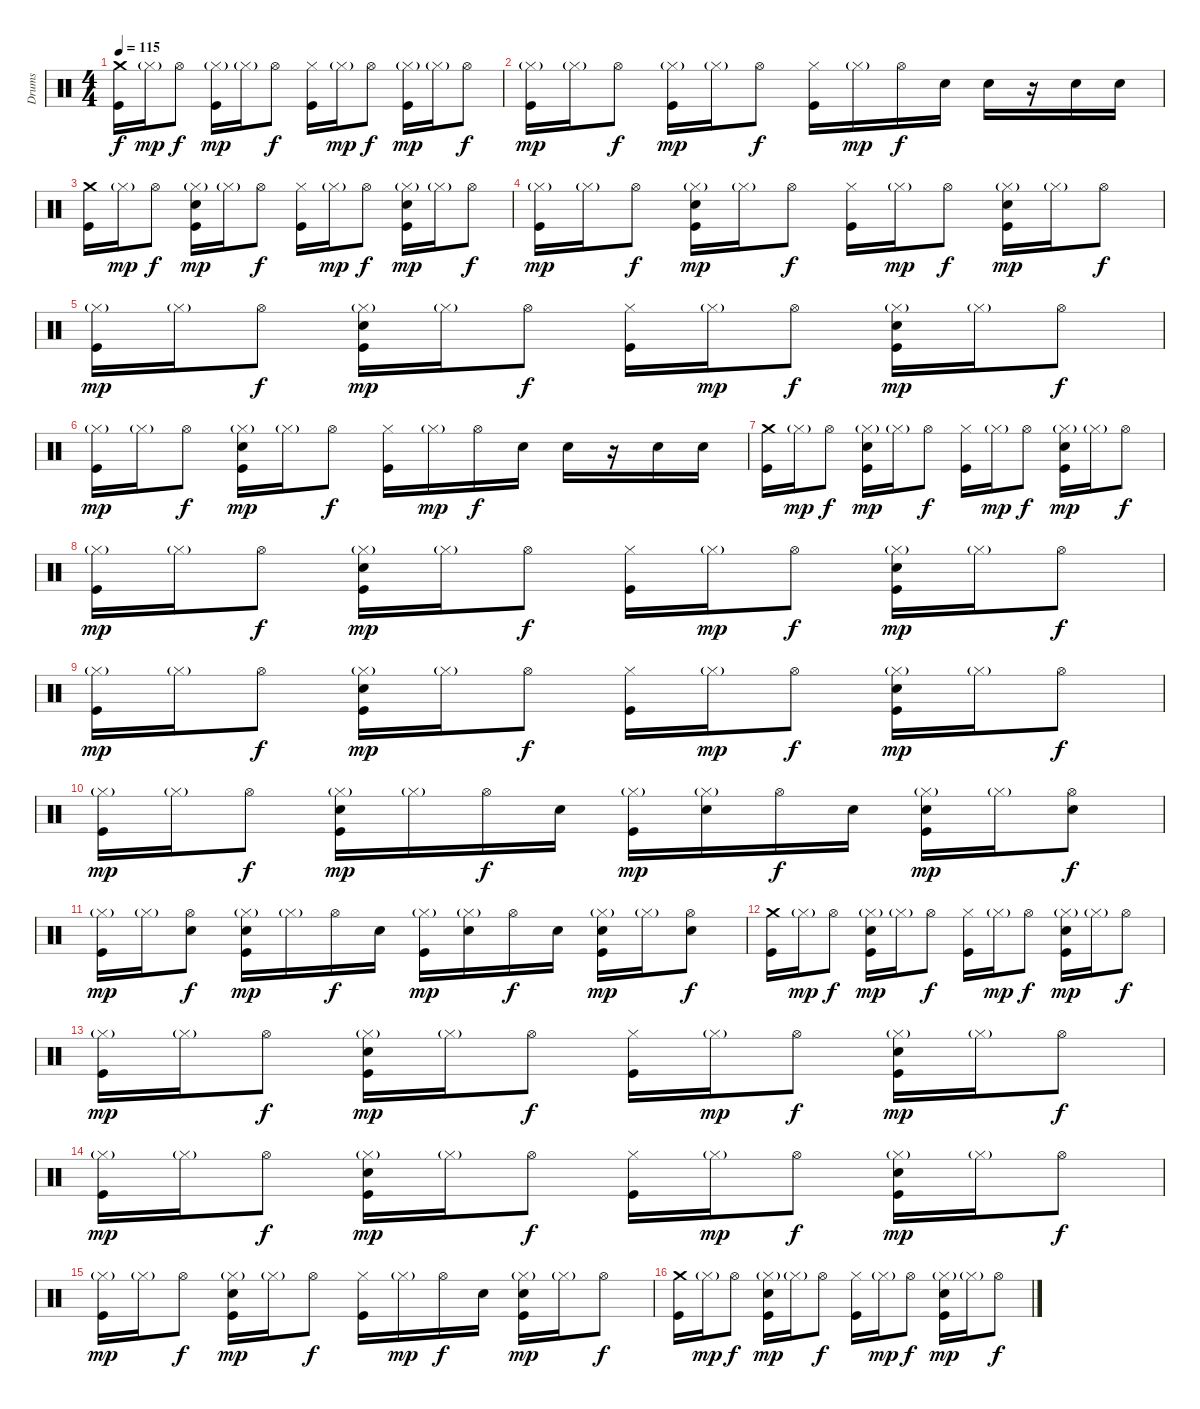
\track ("Drums" "Drums") {instrument percussion}
\staff {score}
\articulation defaults
\ts (4 4)
\tempo 115
\clef neutral
\ks c
("Crash medium (hit)" "Kick (hit)").16{dy f} "Hi-Hat (closed)"{g}.16{dy mp} "Hi-Hat (open)".8{dy f} ("Hi-Hat (closed)"{g} "Kick (hit)").16{dy mp} "Hi-Hat (closed)"{g}.16 "Hi-Hat (open)".8{dy f} ("Hi-Hat (closed)" "Kick (hit)").16 "Hi-Hat (closed)"{g}.16{dy mp} "Hi-Hat (open)".8{dy f} ("Hi-Hat (closed)"{g} "Kick (hit)").16{dy mp} "Hi-Hat (closed)"{g}.16 "Hi-Hat (open)".8{dy f} |
("Hi-Hat (closed)"{g} "Kick (hit)").16{dy mp} "Hi-Hat (closed)"{g}.16 "Hi-Hat (open)".8{dy f} ("Hi-Hat (closed)"{g} "Kick (hit)").16{dy mp} "Hi-Hat (closed)"{g}.16 "Hi-Hat (open)".8{dy f} ("Hi-Hat (closed)" "Kick (hit)").16 "Hi-Hat (closed)"{g}.16{dy mp} "Hi-Hat (open)".16{dy f} "Electric Snare (hit)".16 "Electric Snare (hit)".16 r.16 "Electric Snare (hit)".16 "Electric Snare (hit)".16 |
("Crash medium (hit)" "Kick (hit)").16 "Hi-Hat (closed)"{g}.16{dy mp} "Hi-Hat (open)".8{dy f} ("Hi-Hat (closed)"{g} "Electric Snare (hit)" "Kick (hit)").16{dy mp} "Hi-Hat (closed)"{g}.16 "Hi-Hat (open)".8{dy f} ("Hi-Hat (closed)" "Kick (hit)").16 "Hi-Hat (closed)"{g}.16{dy mp} "Hi-Hat (open)".8{dy f} ("Hi-Hat (closed)"{g} "Electric Snare (hit)" "Kick (hit)").16{dy mp} "Hi-Hat (closed)"{g}.16 "Hi-Hat (open)".8{dy f} |
("Hi-Hat (closed)"{g} "Kick (hit)").16{dy mp} "Hi-Hat (closed)"{g}.16 "Hi-Hat (open)".8{dy f} ("Hi-Hat (closed)"{g} "Electric Snare (hit)" "Kick (hit)").16{dy mp} "Hi-Hat (closed)"{g}.16 "Hi-Hat (open)".8{dy f} ("Hi-Hat (closed)" "Kick (hit)").16 "Hi-Hat (closed)"{g}.16{dy mp} "Hi-Hat (open)".8{dy f} ("Hi-Hat (closed)"{g} "Electric Snare (hit)" "Kick (hit)").16{dy mp} "Hi-Hat (closed)"{g}.16 "Hi-Hat (open)".8{dy f} |
("Hi-Hat (closed)"{g} "Kick (hit)").16{dy mp} "Hi-Hat (closed)"{g}.16 "Hi-Hat (open)".8{dy f} ("Hi-Hat (closed)"{g} "Electric Snare (hit)" "Kick (hit)").16{dy mp} "Hi-Hat (closed)"{g}.16 "Hi-Hat (open)".8{dy f} ("Hi-Hat (closed)" "Kick (hit)").16 "Hi-Hat (closed)"{g}.16{dy mp} "Hi-Hat (open)".8{dy f} ("Hi-Hat (closed)"{g} "Electric Snare (hit)" "Kick (hit)").16{dy mp} "Hi-Hat (closed)"{g}.16 "Hi-Hat (open)".8{dy f} |
("Hi-Hat (closed)"{g} "Kick (hit)").16{dy mp} "Hi-Hat (closed)"{g}.16 "Hi-Hat (open)".8{dy f} ("Hi-Hat (closed)"{g} "Electric Snare (hit)" "Kick (hit)").16{dy mp} "Hi-Hat (closed)"{g}.16 "Hi-Hat (open)".8{dy f} ("Hi-Hat (closed)" "Kick (hit)").16 "Hi-Hat (closed)"{g}.16{dy mp} "Hi-Hat (open)".16{dy f} "Electric Snare (hit)".16 "Electric Snare (hit)".16 r.16 "Electric Snare (hit)".16 "Electric Snare (hit)".16 |
("Crash medium (hit)" "Kick (hit)").16 "Hi-Hat (closed)"{g}.16{dy mp} "Hi-Hat (open)".8{dy f} ("Hi-Hat (closed)"{g} "Electric Snare (hit)" "Kick (hit)").16{dy mp} "Hi-Hat (closed)"{g}.16 "Hi-Hat (open)".8{dy f} ("Hi-Hat (closed)" "Kick (hit)").16 "Hi-Hat (closed)"{g}.16{dy mp} "Hi-Hat (open)".8{dy f} ("Hi-Hat (closed)"{g} "Electric Snare (hit)" "Kick (hit)").16{dy mp} "Hi-Hat (closed)"{g}.16 "Hi-Hat (open)".8{dy f} |
("Hi-Hat (closed)"{g} "Kick (hit)").16{dy mp} "Hi-Hat (closed)"{g}.16 "Hi-Hat (open)".8{dy f} ("Hi-Hat (closed)"{g} "Electric Snare (hit)" "Kick (hit)").16{dy mp} "Hi-Hat (closed)"{g}.16 "Hi-Hat (open)".8{dy f} ("Hi-Hat (closed)" "Kick (hit)").16 "Hi-Hat (closed)"{g}.16{dy mp} "Hi-Hat (open)".8{dy f} ("Hi-Hat (closed)"{g} "Electric Snare (hit)" "Kick (hit)").16{dy mp} "Hi-Hat (closed)"{g}.16 "Hi-Hat (open)".8{dy f} |
("Hi-Hat (closed)"{g} "Kick (hit)").16{dy mp} "Hi-Hat (closed)"{g}.16 "Hi-Hat (open)".8{dy f} ("Hi-Hat (closed)"{g} "Electric Snare (hit)" "Kick (hit)").16{dy mp} "Hi-Hat (closed)"{g}.16 "Hi-Hat (open)".8{dy f} ("Hi-Hat (closed)" "Kick (hit)").16 "Hi-Hat (closed)"{g}.16{dy mp} "Hi-Hat (open)".8{dy f} ("Hi-Hat (closed)"{g} "Electric Snare (hit)" "Kick (hit)").16{dy mp} "Hi-Hat (closed)"{g}.16 "Hi-Hat (open)".8{dy f} |
("Hi-Hat (closed)"{g} "Kick (hit)").16{dy mp} "Hi-Hat (closed)"{g}.16 "Hi-Hat (open)".8{dy f} ("Hi-Hat (closed)"{g} "Electric Snare (hit)" "Kick (hit)").16{dy mp} "Hi-Hat (closed)"{g}.16 "Hi-Hat (open)".16{dy f} "Electric Snare (hit)".16 ("Hi-Hat (closed)"{g} "Kick (hit)").16{dy mp} ("Hi-Hat (closed)"{g} "Electric Snare (hit)").16 "Hi-Hat (open)".16{dy f} "Electric Snare (hit)".16 ("Hi-Hat (closed)"{g} "Electric Snare (hit)" "Kick (hit)").16{dy mp} "Hi-Hat (closed)"{g}.16 ("Hi-Hat (open)" "Electric Snare (hit)").8{dy f} |
("Hi-Hat (closed)"{g} "Kick (hit)").16{dy mp} "Hi-Hat (closed)"{g}.16 ("Hi-Hat (open)" "Electric Snare (hit)").8{dy f} ("Hi-Hat (closed)"{g} "Electric Snare (hit)" "Kick (hit)").16{dy mp} "Hi-Hat (closed)"{g}.16 "Hi-Hat (open)".16{dy f} "Electric Snare (hit)".16 ("Hi-Hat (closed)"{g} "Kick (hit)").16{dy mp} ("Hi-Hat (closed)"{g} "Electric Snare (hit)").16 "Hi-Hat (open)".16{dy f} "Electric Snare (hit)".16 ("Hi-Hat (closed)"{g} "Electric Snare (hit)" "Kick (hit)").16{dy mp} "Hi-Hat (closed)"{g}.16 ("Hi-Hat (open)" "Electric Snare (hit)").8{dy f} |
("Crash medium (hit)" "Kick (hit)").16 "Hi-Hat (closed)"{g}.16{dy mp} "Hi-Hat (open)".8{dy f} ("Hi-Hat (closed)"{g} "Electric Snare (hit)" "Kick (hit)").16{dy mp} "Hi-Hat (closed)"{g}.16 "Hi-Hat (open)".8{dy f} ("Hi-Hat (closed)" "Kick (hit)").16 "Hi-Hat (closed)"{g}.16{dy mp} "Hi-Hat (open)".8{dy f} ("Hi-Hat (closed)"{g} "Electric Snare (hit)" "Kick (hit)").16{dy mp} "Hi-Hat (closed)"{g}.16 "Hi-Hat (open)".8{dy f} |
("Hi-Hat (closed)"{g} "Kick (hit)").16{dy mp} "Hi-Hat (closed)"{g}.16 "Hi-Hat (open)".8{dy f} ("Hi-Hat (closed)"{g} "Electric Snare (hit)" "Kick (hit)").16{dy mp} "Hi-Hat (closed)"{g}.16 "Hi-Hat (open)".8{dy f} ("Hi-Hat (closed)" "Kick (hit)").16 "Hi-Hat (closed)"{g}.16{dy mp} "Hi-Hat (open)".8{dy f} ("Hi-Hat (closed)"{g} "Electric Snare (hit)" "Kick (hit)").16{dy mp} "Hi-Hat (closed)"{g}.16 "Hi-Hat (open)".8{dy f} |
("Hi-Hat (closed)"{g} "Kick (hit)").16{dy mp} "Hi-Hat (closed)"{g}.16 "Hi-Hat (open)".8{dy f} ("Hi-Hat (closed)"{g} "Electric Snare (hit)" "Kick (hit)").16{dy mp} "Hi-Hat (closed)"{g}.16 "Hi-Hat (open)".8{dy f} ("Hi-Hat (closed)" "Kick (hit)").16 "Hi-Hat (closed)"{g}.16{dy mp} "Hi-Hat (open)".8{dy f} ("Hi-Hat (closed)"{g} "Electric Snare (hit)" "Kick (hit)").16{dy mp} "Hi-Hat (closed)"{g}.16 "Hi-Hat (open)".8{dy f} |
("Hi-Hat (closed)"{g} "Kick (hit)").16{dy mp} "Hi-Hat (closed)"{g}.16 "Hi-Hat (open)".8{dy f} ("Hi-Hat (closed)"{g} "Electric Snare (hit)" "Kick (hit)").16{dy mp} "Hi-Hat (closed)"{g}.16 "Hi-Hat (open)".8{dy f} ("Hi-Hat (closed)" "Kick (hit)").16 "Hi-Hat (closed)"{g}.16{dy mp} "Hi-Hat (open)".16{dy f} "Electric Snare (hit)".16 ("Hi-Hat (closed)"{g} "Electric Snare (hit)" "Kick (hit)").16{dy mp} "Hi-Hat (closed)"{g}.16 "Hi-Hat (open)".8{dy f} |
("Crash medium (hit)" "Kick (hit)").16 "Hi-Hat (closed)"{g}.16{dy mp} "Hi-Hat (open)".8{dy f} ("Hi-Hat (closed)"{g} "Electric Snare (hit)" "Kick (hit)").16{dy mp} "Hi-Hat (closed)"{g}.16 "Hi-Hat (open)".8{dy f} ("Hi-Hat (closed)" "Kick (hit)").16 "Hi-Hat (closed)"{g}.16{dy mp} "Hi-Hat (open)".8{dy f} ("Hi-Hat (closed)"{g} "Electric Snare (hit)" "Kick (hit)").16{dy mp} "Hi-Hat (closed)"{g}.16 "Hi-Hat (open)".8{dy f}
